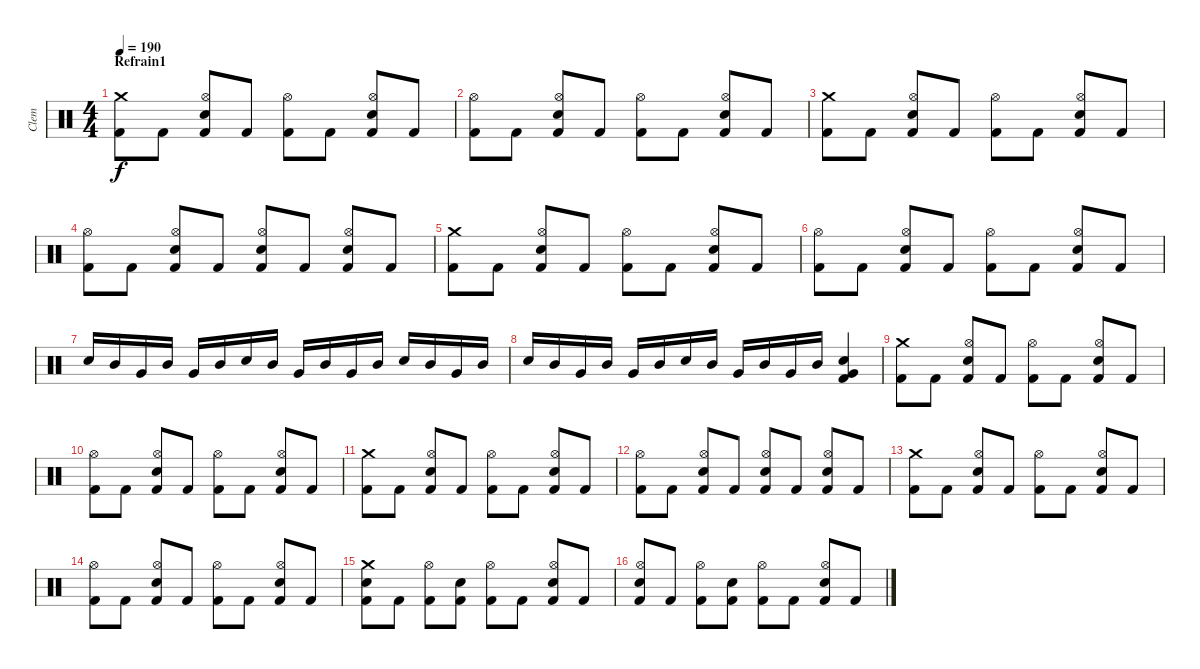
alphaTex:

\track ("Clem" "Clem") {instrument percussion}
\staff {score}
\articulation defaults
\ts (4 4)
\section ("" "Refrain1")
\tempo 190
\clef neutral
\ks c
("Crash medium (hit)" "Kick (hit) 2").8{dy f} "Kick (hit) 2".8 ("Hi-Hat (open)" "Electric Snare (hit)" "Kick (hit) 2").8 "Kick (hit) 2".8 ("Hi-Hat (open)" "Kick (hit) 2").8 "Kick (hit) 2".8 ("Hi-Hat (open)" "Electric Snare (hit)" "Kick (hit) 2").8 "Kick (hit) 2".8 |
("Hi-Hat (open)" "Kick (hit) 2").8 "Kick (hit) 2".8 ("Hi-Hat (open)" "Electric Snare (hit)" "Kick (hit) 2").8 "Kick (hit) 2".8 ("Hi-Hat (open)" "Kick (hit) 2").8 "Kick (hit) 2".8 ("Hi-Hat (open)" "Electric Snare (hit)" "Kick (hit) 2").8 "Kick (hit) 2".8 |
("Crash medium (hit)" "Kick (hit) 2").8 "Kick (hit) 2".8 ("Hi-Hat (open)" "Electric Snare (hit)" "Kick (hit) 2").8 "Kick (hit) 2".8 ("Hi-Hat (open)" "Kick (hit) 2").8 "Kick (hit) 2".8 ("Hi-Hat (open)" "Electric Snare (hit)" "Kick (hit) 2").8 "Kick (hit) 2".8 |
("Hi-Hat (open)" "Kick (hit) 2").8 "Kick (hit) 2".8 ("Hi-Hat (open)" "Electric Snare (hit)" "Kick (hit) 2").8 "Kick (hit) 2".8 ("Hi-Hat (open)" "Electric Snare (hit)" "Kick (hit) 2").8 "Kick (hit) 2".8 ("Hi-Hat (open)" "Electric Snare (hit)" "Kick (hit) 2").8 "Kick (hit) 2".8 |
("Crash medium (hit)" "Kick (hit) 2").8 "Kick (hit) 2".8 ("Hi-Hat (open)" "Electric Snare (hit)" "Kick (hit) 2").8 "Kick (hit) 2".8 ("Hi-Hat (open)" "Kick (hit) 2").8 "Kick (hit) 2".8 ("Hi-Hat (open)" "Electric Snare (hit)" "Kick (hit) 2").8 "Kick (hit) 2".8 |
("Hi-Hat (open)" "Kick (hit) 2").8 "Kick (hit) 2".8 ("Hi-Hat (open)" "Electric Snare (hit)" "Kick (hit) 2").8 "Kick (hit) 2".8 ("Hi-Hat (open)" "Kick (hit) 2").8 "Kick (hit) 2".8 ("Hi-Hat (open)" "Electric Snare (hit)" "Kick (hit) 2").8 "Kick (hit) 2".8 |
"Electric Snare (hit)".16 "Mid Tom (hit)".16 "Very Low Tom (hit)".16 "Mid Tom (hit)".16 "Very Low Tom (hit)".16 "Mid Tom (hit)".16 "Electric Snare (hit)".16 "Mid Tom (hit)".16 "Very Low Tom (hit)".16 "Mid Tom (hit)".16 "Very Low Tom (hit)".16 "Mid Tom (hit)".16 "Electric Snare (hit)".16 "Mid Tom (hit)".16 "Very Low Tom (hit)".16 "Mid Tom (hit)".16 |
"Electric Snare (hit)".16 "Mid Tom (hit)".16 "Very Low Tom (hit)".16 "Mid Tom (hit)".16 "Very Low Tom (hit)".16 "Mid Tom (hit)".16 "Electric Snare (hit)".16 "Mid Tom (hit)".16 "Very Low Tom (hit)".16 "Mid Tom (hit)".16 "Very Low Tom (hit)".16 "Mid Tom (hit)".16 ("Electric Snare (hit)" "Very Low Tom (hit)" "Kick (hit) 2").4 |
("Crash medium (hit)" "Kick (hit) 2").8 "Kick (hit) 2".8 ("Hi-Hat (open)" "Electric Snare (hit)" "Kick (hit) 2").8 "Kick (hit) 2".8 ("Hi-Hat (open)" "Kick (hit) 2").8 "Kick (hit) 2".8 ("Hi-Hat (open)" "Electric Snare (hit)" "Kick (hit) 2").8 "Kick (hit) 2".8 |
("Hi-Hat (open)" "Kick (hit) 2").8 "Kick (hit) 2".8 ("Hi-Hat (open)" "Electric Snare (hit)" "Kick (hit) 2").8 "Kick (hit) 2".8 ("Hi-Hat (open)" "Kick (hit) 2").8 "Kick (hit) 2".8 ("Hi-Hat (open)" "Electric Snare (hit)" "Kick (hit) 2").8 "Kick (hit) 2".8 |
("Crash medium (hit)" "Kick (hit) 2").8 "Kick (hit) 2".8 ("Hi-Hat (open)" "Electric Snare (hit)" "Kick (hit) 2").8 "Kick (hit) 2".8 ("Hi-Hat (open)" "Kick (hit) 2").8 "Kick (hit) 2".8 ("Hi-Hat (open)" "Electric Snare (hit)" "Kick (hit) 2").8 "Kick (hit) 2".8 |
("Hi-Hat (open)" "Kick (hit) 2").8 "Kick (hit) 2".8 ("Hi-Hat (open)" "Electric Snare (hit)" "Kick (hit) 2").8 "Kick (hit) 2".8 ("Hi-Hat (open)" "Electric Snare (hit)" "Kick (hit) 2").8 "Kick (hit) 2".8 ("Hi-Hat (open)" "Electric Snare (hit)" "Kick (hit) 2").8 "Kick (hit) 2".8 |
("Crash medium (hit)" "Kick (hit) 2").8 "Kick (hit) 2".8 ("Hi-Hat (open)" "Electric Snare (hit)" "Kick (hit) 2").8 "Kick (hit) 2".8 ("Hi-Hat (open)" "Kick (hit) 2").8 "Kick (hit) 2".8 ("Hi-Hat (open)" "Electric Snare (hit)" "Kick (hit) 2").8 "Kick (hit) 2".8 |
("Hi-Hat (open)" "Kick (hit) 2").8 "Kick (hit) 2".8 ("Hi-Hat (open)" "Electric Snare (hit)" "Kick (hit) 2").8 "Kick (hit) 2".8 ("Hi-Hat (open)" "Kick (hit) 2").8 "Kick (hit) 2".8 ("Hi-Hat (open)" "Electric Snare (hit)" "Kick (hit) 2").8 "Kick (hit) 2".8 |
("Crash medium (hit)" "Electric Snare (hit)" "Kick (hit) 2").8 "Kick (hit) 2".8 ("Hi-Hat (open)" "Kick (hit) 2").8 ("Electric Snare (hit)" "Kick (hit) 2").8 ("Hi-Hat (open)" "Kick (hit) 2").8 "Kick (hit) 2".8 ("Hi-Hat (open)" "Electric Snare (hit)" "Kick (hit) 2").8 "Kick (hit) 2".8 |
("Hi-Hat (open)" "Electric Snare (hit)" "Kick (hit) 2").8 "Kick (hit) 2".8 ("Hi-Hat (open)" "Kick (hit) 2").8 ("Electric Snare (hit)" "Kick (hit) 2").8 ("Hi-Hat (open)" "Kick (hit) 2").8 "Kick (hit) 2".8 ("Hi-Hat (open)" "Electric Snare (hit)" "Kick (hit) 2").8 "Kick (hit) 2".8
